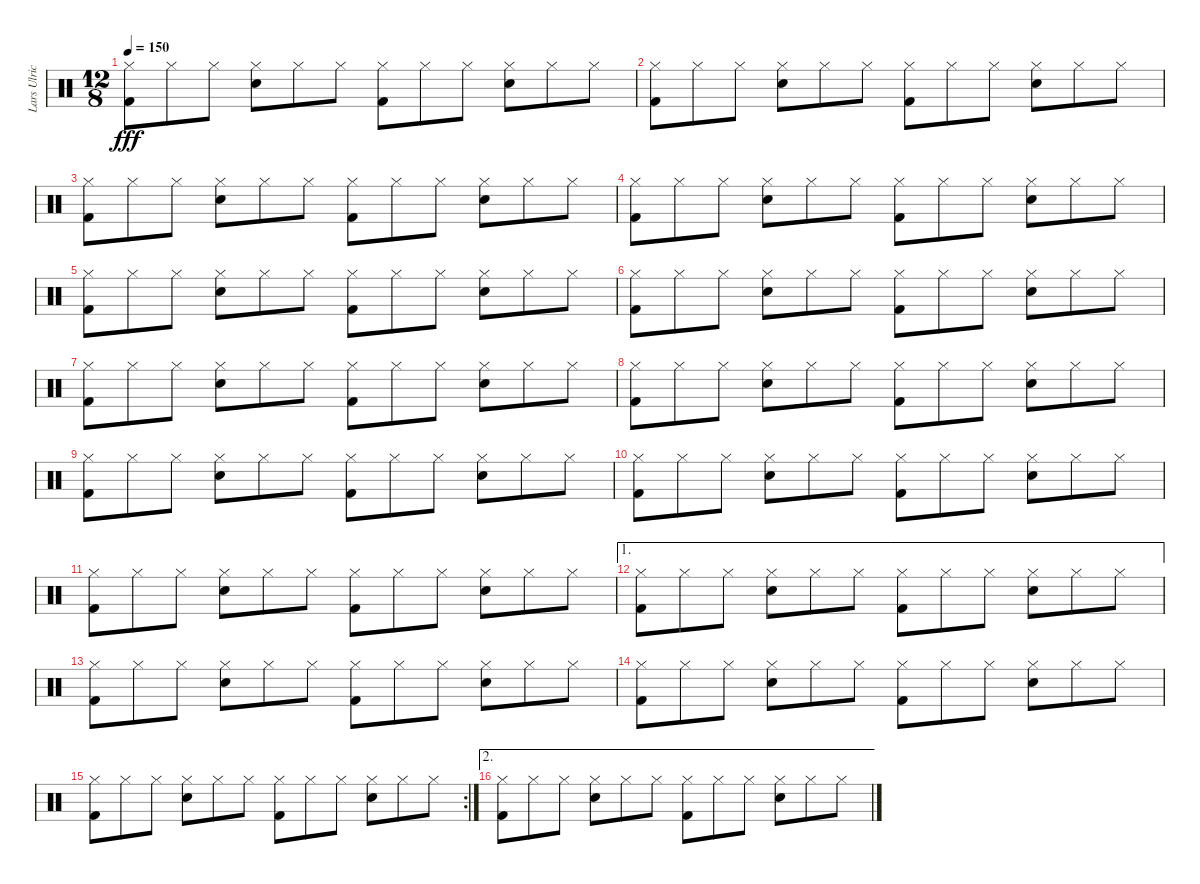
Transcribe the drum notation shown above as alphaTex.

\track ("Lars Ulrich (Drums)" "Lars Ulric") {instrument percussion}
\staff {score}
\articulation defaults
\ts (12 8)
\tempo 150
\clef neutral
\ks c
("Hi-Hat (closed)" "Kick (hit) 2").8{dy fff} "Hi-Hat (closed)".8 "Hi-Hat (closed)".8 ("Hi-Hat (closed)" "Electric Snare (hit)").8 "Hi-Hat (closed)".8 "Hi-Hat (closed)".8 ("Hi-Hat (closed)" "Kick (hit) 2").8 "Hi-Hat (closed)".8 "Hi-Hat (closed)".8 ("Hi-Hat (closed)" "Electric Snare (hit)").8 "Hi-Hat (closed)".8 "Hi-Hat (closed)".8 |
("Hi-Hat (closed)" "Kick (hit) 2").8 "Hi-Hat (closed)".8 "Hi-Hat (closed)".8 ("Hi-Hat (closed)" "Electric Snare (hit)").8 "Hi-Hat (closed)".8 "Hi-Hat (closed)".8 ("Hi-Hat (closed)" "Kick (hit) 2").8 "Hi-Hat (closed)".8 "Hi-Hat (closed)".8 ("Hi-Hat (closed)" "Electric Snare (hit)").8 "Hi-Hat (closed)".8 "Hi-Hat (closed)".8 |
("Hi-Hat (closed)" "Kick (hit) 2").8 "Hi-Hat (closed)".8 "Hi-Hat (closed)".8 ("Hi-Hat (closed)" "Electric Snare (hit)").8 "Hi-Hat (closed)".8 "Hi-Hat (closed)".8 ("Hi-Hat (closed)" "Kick (hit) 2").8 "Hi-Hat (closed)".8 "Hi-Hat (closed)".8 ("Hi-Hat (closed)" "Electric Snare (hit)").8 "Hi-Hat (closed)".8 "Hi-Hat (closed)".8 |
("Hi-Hat (closed)" "Kick (hit) 2").8 "Hi-Hat (closed)".8 "Hi-Hat (closed)".8 ("Hi-Hat (closed)" "Electric Snare (hit)").8 "Hi-Hat (closed)".8 "Hi-Hat (closed)".8 ("Hi-Hat (closed)" "Kick (hit) 2").8 "Hi-Hat (closed)".8 "Hi-Hat (closed)".8 ("Hi-Hat (closed)" "Electric Snare (hit)").8 "Hi-Hat (closed)".8 "Hi-Hat (closed)".8 |
("Hi-Hat (closed)" "Kick (hit) 2").8 "Hi-Hat (closed)".8 "Hi-Hat (closed)".8 ("Hi-Hat (closed)" "Electric Snare (hit)").8 "Hi-Hat (closed)".8 "Hi-Hat (closed)".8 ("Hi-Hat (closed)" "Kick (hit) 2").8 "Hi-Hat (closed)".8 "Hi-Hat (closed)".8 ("Hi-Hat (closed)" "Electric Snare (hit)").8 "Hi-Hat (closed)".8 "Hi-Hat (closed)".8 |
("Hi-Hat (closed)" "Kick (hit) 2").8 "Hi-Hat (closed)".8 "Hi-Hat (closed)".8 ("Hi-Hat (closed)" "Electric Snare (hit)").8 "Hi-Hat (closed)".8 "Hi-Hat (closed)".8 ("Hi-Hat (closed)" "Kick (hit) 2").8 "Hi-Hat (closed)".8 "Hi-Hat (closed)".8 ("Hi-Hat (closed)" "Electric Snare (hit)").8 "Hi-Hat (closed)".8 "Hi-Hat (closed)".8 |
("Hi-Hat (closed)" "Kick (hit) 2").8 "Hi-Hat (closed)".8 "Hi-Hat (closed)".8 ("Hi-Hat (closed)" "Electric Snare (hit)").8 "Hi-Hat (closed)".8 "Hi-Hat (closed)".8 ("Hi-Hat (closed)" "Kick (hit) 2").8 "Hi-Hat (closed)".8 "Hi-Hat (closed)".8 ("Hi-Hat (closed)" "Electric Snare (hit)").8 "Hi-Hat (closed)".8 "Hi-Hat (closed)".8 |
("Hi-Hat (closed)" "Kick (hit) 2").8 "Hi-Hat (closed)".8 "Hi-Hat (closed)".8 ("Hi-Hat (closed)" "Electric Snare (hit)").8 "Hi-Hat (closed)".8 "Hi-Hat (closed)".8 ("Hi-Hat (closed)" "Kick (hit) 2").8 "Hi-Hat (closed)".8 "Hi-Hat (closed)".8 ("Hi-Hat (closed)" "Electric Snare (hit)").8 "Hi-Hat (closed)".8 "Hi-Hat (closed)".8 |
("Hi-Hat (closed)" "Kick (hit) 2").8 "Hi-Hat (closed)".8 "Hi-Hat (closed)".8 ("Hi-Hat (closed)" "Electric Snare (hit)").8 "Hi-Hat (closed)".8 "Hi-Hat (closed)".8 ("Hi-Hat (closed)" "Kick (hit) 2").8 "Hi-Hat (closed)".8 "Hi-Hat (closed)".8 ("Hi-Hat (closed)" "Electric Snare (hit)").8 "Hi-Hat (closed)".8 "Hi-Hat (closed)".8 |
("Hi-Hat (closed)" "Kick (hit) 2").8 "Hi-Hat (closed)".8 "Hi-Hat (closed)".8 ("Hi-Hat (closed)" "Electric Snare (hit)").8 "Hi-Hat (closed)".8 "Hi-Hat (closed)".8 ("Hi-Hat (closed)" "Kick (hit) 2").8 "Hi-Hat (closed)".8 "Hi-Hat (closed)".8 ("Hi-Hat (closed)" "Electric Snare (hit)").8 "Hi-Hat (closed)".8 "Hi-Hat (closed)".8 |
("Hi-Hat (closed)" "Kick (hit) 2").8 "Hi-Hat (closed)".8 "Hi-Hat (closed)".8 ("Hi-Hat (closed)" "Electric Snare (hit)").8 "Hi-Hat (closed)".8 "Hi-Hat (closed)".8 ("Hi-Hat (closed)" "Kick (hit) 2").8 "Hi-Hat (closed)".8 "Hi-Hat (closed)".8 ("Hi-Hat (closed)" "Electric Snare (hit)").8 "Hi-Hat (closed)".8 "Hi-Hat (closed)".8 |
\ae 1
("Hi-Hat (closed)" "Kick (hit) 2").8 "Hi-Hat (closed)".8 "Hi-Hat (closed)".8 ("Hi-Hat (closed)" "Electric Snare (hit)").8 "Hi-Hat (closed)".8 "Hi-Hat (closed)".8 ("Hi-Hat (closed)" "Kick (hit) 2").8 "Hi-Hat (closed)".8 "Hi-Hat (closed)".8 ("Hi-Hat (closed)" "Electric Snare (hit)").8 "Hi-Hat (closed)".8 "Hi-Hat (closed)".8 |
("Hi-Hat (closed)" "Kick (hit) 2").8 "Hi-Hat (closed)".8 "Hi-Hat (closed)".8 ("Hi-Hat (closed)" "Electric Snare (hit)").8 "Hi-Hat (closed)".8 "Hi-Hat (closed)".8 ("Hi-Hat (closed)" "Kick (hit) 2").8 "Hi-Hat (closed)".8 "Hi-Hat (closed)".8 ("Hi-Hat (closed)" "Electric Snare (hit)").8 "Hi-Hat (closed)".8 "Hi-Hat (closed)".8 |
("Hi-Hat (closed)" "Kick (hit) 2").8 "Hi-Hat (closed)".8 "Hi-Hat (closed)".8 ("Hi-Hat (closed)" "Electric Snare (hit)").8 "Hi-Hat (closed)".8 "Hi-Hat (closed)".8 ("Hi-Hat (closed)" "Kick (hit) 2").8 "Hi-Hat (closed)".8 "Hi-Hat (closed)".8 ("Hi-Hat (closed)" "Electric Snare (hit)").8 "Hi-Hat (closed)".8 "Hi-Hat (closed)".8 |
\rc 2
("Hi-Hat (closed)" "Kick (hit) 2").8 "Hi-Hat (closed)".8 "Hi-Hat (closed)".8 ("Hi-Hat (closed)" "Electric Snare (hit)").8 "Hi-Hat (closed)".8 "Hi-Hat (closed)".8 ("Hi-Hat (closed)" "Kick (hit) 2").8 "Hi-Hat (closed)".8 "Hi-Hat (closed)".8 ("Hi-Hat (closed)" "Electric Snare (hit)").8 "Hi-Hat (closed)".8 "Hi-Hat (closed)".8 |
\ae 2
("Hi-Hat (closed)" "Kick (hit) 2").8 "Hi-Hat (closed)".8 "Hi-Hat (closed)".8 ("Hi-Hat (closed)" "Electric Snare (hit)").8 "Hi-Hat (closed)".8 "Hi-Hat (closed)".8 ("Hi-Hat (closed)" "Kick (hit) 2").8 "Hi-Hat (closed)".8 "Hi-Hat (closed)".8 ("Hi-Hat (closed)" "Electric Snare (hit)").8 "Hi-Hat (closed)".8 "Hi-Hat (closed)".8
